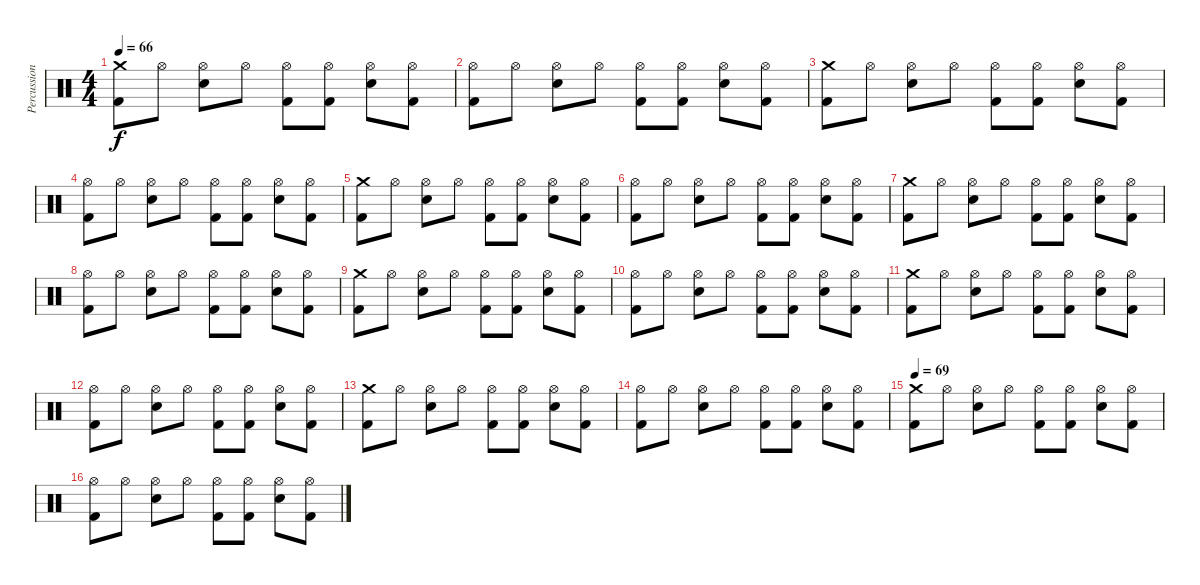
\track ("Percussion" "Percussion") {instrument percussion}
\staff {score}
\articulation defaults
\ts (4 4)
\tempo 66
\clef neutral
\ks c
("Crash medium (hit)" "Kick (hit) 2").8{dy f} "Hi-Hat (open)".8 ("Hi-Hat (open)" "Electric Snare (hit)").8 "Hi-Hat (open)".8 ("Hi-Hat (open)" "Kick (hit) 2").8 ("Hi-Hat (open)" "Kick (hit) 2").8 ("Hi-Hat (open)" "Electric Snare (hit)").8 ("Hi-Hat (open)" "Kick (hit) 2").8 |
("Hi-Hat (open)" "Kick (hit) 2").8 "Hi-Hat (open)".8 ("Hi-Hat (open)" "Electric Snare (hit)").8 "Hi-Hat (open)".8 ("Hi-Hat (open)" "Kick (hit) 2").8 ("Hi-Hat (open)" "Kick (hit) 2").8 ("Hi-Hat (open)" "Electric Snare (hit)").8 ("Hi-Hat (open)" "Kick (hit) 2").8 |
("Crash medium (hit)" "Kick (hit) 2").8 "Hi-Hat (open)".8 ("Hi-Hat (open)" "Electric Snare (hit)").8 "Hi-Hat (open)".8 ("Hi-Hat (open)" "Kick (hit) 2").8 ("Hi-Hat (open)" "Kick (hit) 2").8 ("Hi-Hat (open)" "Electric Snare (hit)").8 ("Hi-Hat (open)" "Kick (hit) 2").8 |
("Hi-Hat (open)" "Kick (hit) 2").8 "Hi-Hat (open)".8 ("Hi-Hat (open)" "Electric Snare (hit)").8 "Hi-Hat (open)".8 ("Hi-Hat (open)" "Kick (hit) 2").8 ("Hi-Hat (open)" "Kick (hit) 2").8 ("Hi-Hat (open)" "Electric Snare (hit)").8 ("Hi-Hat (open)" "Kick (hit) 2").8 |
("Crash medium (hit)" "Kick (hit) 2").8 "Hi-Hat (open)".8 ("Hi-Hat (open)" "Electric Snare (hit)").8 "Hi-Hat (open)".8 ("Hi-Hat (open)" "Kick (hit) 2").8 ("Hi-Hat (open)" "Kick (hit) 2").8 ("Hi-Hat (open)" "Electric Snare (hit)").8 ("Hi-Hat (open)" "Kick (hit) 2").8 |
("Hi-Hat (open)" "Kick (hit) 2").8 "Hi-Hat (open)".8 ("Hi-Hat (open)" "Electric Snare (hit)").8 "Hi-Hat (open)".8 ("Hi-Hat (open)" "Kick (hit) 2").8 ("Hi-Hat (open)" "Kick (hit) 2").8 ("Hi-Hat (open)" "Electric Snare (hit)").8 ("Hi-Hat (open)" "Kick (hit) 2").8 |
("Crash medium (hit)" "Kick (hit) 2").8 "Hi-Hat (open)".8 ("Hi-Hat (open)" "Electric Snare (hit)").8 "Hi-Hat (open)".8 ("Hi-Hat (open)" "Kick (hit) 2").8 ("Hi-Hat (open)" "Kick (hit) 2").8 ("Hi-Hat (open)" "Electric Snare (hit)").8 ("Hi-Hat (open)" "Kick (hit) 2").8 |
("Hi-Hat (open)" "Kick (hit) 2").8 "Hi-Hat (open)".8 ("Hi-Hat (open)" "Electric Snare (hit)").8 "Hi-Hat (open)".8 ("Hi-Hat (open)" "Kick (hit) 2").8 ("Hi-Hat (open)" "Kick (hit) 2").8 ("Hi-Hat (open)" "Electric Snare (hit)").8 ("Hi-Hat (open)" "Kick (hit) 2").8 |
("Crash medium (hit)" "Kick (hit) 2").8 "Hi-Hat (open)".8 ("Hi-Hat (open)" "Electric Snare (hit)").8 "Hi-Hat (open)".8 ("Hi-Hat (open)" "Kick (hit) 2").8 ("Hi-Hat (open)" "Kick (hit) 2").8 ("Hi-Hat (open)" "Electric Snare (hit)").8 ("Hi-Hat (open)" "Kick (hit) 2").8 |
("Hi-Hat (open)" "Kick (hit) 2").8 "Hi-Hat (open)".8 ("Hi-Hat (open)" "Electric Snare (hit)").8 "Hi-Hat (open)".8 ("Hi-Hat (open)" "Kick (hit) 2").8 ("Hi-Hat (open)" "Kick (hit) 2").8 ("Hi-Hat (open)" "Electric Snare (hit)").8 ("Hi-Hat (open)" "Kick (hit) 2").8 |
("Crash medium (hit)" "Kick (hit) 2").8 "Hi-Hat (open)".8 ("Hi-Hat (open)" "Electric Snare (hit)").8 "Hi-Hat (open)".8 ("Hi-Hat (open)" "Kick (hit) 2").8 ("Hi-Hat (open)" "Kick (hit) 2").8 ("Hi-Hat (open)" "Electric Snare (hit)").8 ("Hi-Hat (open)" "Kick (hit) 2").8 |
("Hi-Hat (open)" "Kick (hit) 2").8 "Hi-Hat (open)".8 ("Hi-Hat (open)" "Electric Snare (hit)").8 "Hi-Hat (open)".8 ("Hi-Hat (open)" "Kick (hit) 2").8 ("Hi-Hat (open)" "Kick (hit) 2").8 ("Hi-Hat (open)" "Electric Snare (hit)").8 ("Hi-Hat (open)" "Kick (hit) 2").8 |
("Crash medium (hit)" "Kick (hit) 2").8 "Hi-Hat (open)".8 ("Hi-Hat (open)" "Electric Snare (hit)").8 "Hi-Hat (open)".8 ("Hi-Hat (open)" "Kick (hit) 2").8 ("Hi-Hat (open)" "Kick (hit) 2").8 ("Hi-Hat (open)" "Electric Snare (hit)").8 ("Hi-Hat (open)" "Kick (hit) 2").8 |
("Hi-Hat (open)" "Kick (hit) 2").8 "Hi-Hat (open)".8 ("Hi-Hat (open)" "Electric Snare (hit)").8 "Hi-Hat (open)".8 ("Hi-Hat (open)" "Kick (hit) 2").8 ("Hi-Hat (open)" "Kick (hit) 2").8 ("Hi-Hat (open)" "Electric Snare (hit)").8 ("Hi-Hat (open)" "Kick (hit) 2").8 |
\tempo 69
("Crash medium (hit)" "Kick (hit) 2").8 "Hi-Hat (open)".8 ("Hi-Hat (open)" "Electric Snare (hit)").8 "Hi-Hat (open)".8 ("Hi-Hat (open)" "Kick (hit) 2").8 ("Hi-Hat (open)" "Kick (hit) 2").8 ("Hi-Hat (open)" "Electric Snare (hit)").8 ("Hi-Hat (open)" "Kick (hit) 2").8 |
("Hi-Hat (open)" "Kick (hit) 2").8 "Hi-Hat (open)".8 ("Hi-Hat (open)" "Electric Snare (hit)").8 "Hi-Hat (open)".8 ("Hi-Hat (open)" "Kick (hit) 2").8 ("Hi-Hat (open)" "Kick (hit) 2").8 ("Hi-Hat (open)" "Electric Snare (hit)").8 ("Hi-Hat (open)" "Kick (hit) 2").8
